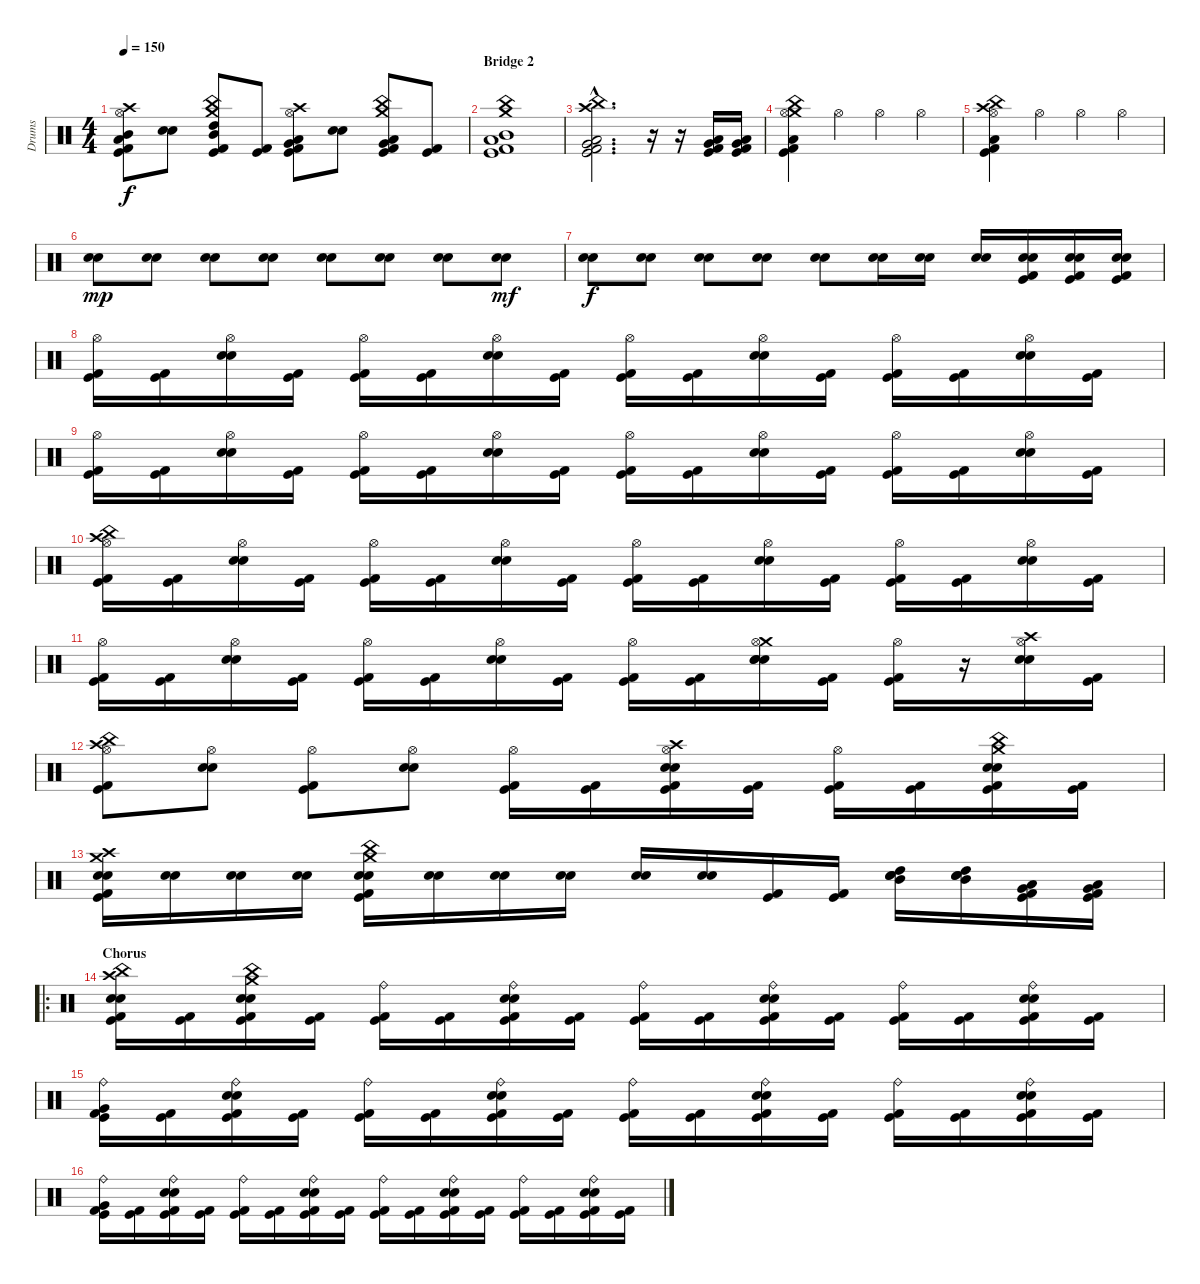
\track ("Drums" "Drums") {instrument percussion}
\staff {score}
\articulation defaults
\ts (4 4)
\tempo 150
\clef neutral
\ks c
("Crash high (hit)" "Hi-Hat (open)" "Mid Tom (hit)" "Low Tom (hit)" "Kick (hit) 2" "Kick (hit)").8{dy f} ("Snare (hit) 2" "Electric Snare (hit)").8 ("Crash medium (hit)" "China (hit)" "High Tom (hit)" "Mid Tom (hit)" "Kick (hit)" "Kick (hit) 2").8 ("Kick (hit) 2" "Kick (hit)").8 ("Crash high (hit)" "Hi-Hat (open)" "Low Tom (hit)" "Very Low Tom (hit)" "Kick (hit) 2" "Kick (hit)").8 ("Electric Snare (hit)" "Snare (hit) 2").8 ("Crash medium (hit)" "China (hit)" "Very Low Tom (hit)" "Low Tom (hit)" "Kick (hit)" "Kick (hit) 2").8 ("Kick (hit) 2" "Kick (hit)").8 |
\section ("" "Bridge 2")
("Crash medium (hit)" "China (hit)" "Low Tom (hit)" "Mid Tom (hit)" "Kick (hit) 2" "Kick (hit)").1 |
("Crash high (hit)"{hac} "China (hit)"{hac} "Low Tom (hit)"{hac} "Kick (hit)"{hac} "Kick (hit) 2"{hac} "Very Low Tom (hit)"{hac}).2{d} r.16 r.16 ("Very Low Tom (hit)" "Low Tom (hit)" "Kick (hit)" "Kick (hit) 2").16 ("Very Low Tom (hit)" "Low Tom (hit)" "Kick (hit)" "Kick (hit) 2").16 |
("Crash medium (hit)" "China (hit)" "Hi-Hat (open)" "Low Tom (hit)" "Kick (hit) 2" "Kick (hit)").4 "Hi-Hat (open)".4 "Hi-Hat (open)".4 "Hi-Hat (open)".4 |
("Crash high (hit)" "China (hit)" "Hi-Hat (open)" "Low Tom (hit)" "Kick (hit) 2" "Kick (hit)").4 "Hi-Hat (open)".4 "Hi-Hat (open)".4 "Hi-Hat (open)".4 |
("Snare (hit) 2" "Electric Snare (hit)").8{dy mp} ("Snare (hit) 2" "Electric Snare (hit)").8 ("Snare (hit) 2" "Electric Snare (hit)").8 ("Snare (hit) 2" "Electric Snare (hit)").8 ("Snare (hit) 2" "Electric Snare (hit)").8 ("Snare (hit) 2" "Electric Snare (hit)").8 ("Snare (hit) 2" "Electric Snare (hit)").8 ("Snare (hit) 2" "Electric Snare (hit)").8{dy mf} |
("Snare (hit) 2" "Electric Snare (hit)").8{dy f} ("Snare (hit) 2" "Electric Snare (hit)").8 ("Snare (hit) 2" "Electric Snare (hit)").8 ("Snare (hit) 2" "Electric Snare (hit)").8 ("Snare (hit) 2" "Electric Snare (hit)").8 ("Snare (hit) 2" "Electric Snare (hit)").16 ("Snare (hit) 2" "Electric Snare (hit)").16 ("Snare (hit) 2" "Electric Snare (hit)").16 ("Snare (hit) 2" "Electric Snare (hit)" "Kick (hit) 2" "Kick (hit)").16 ("Snare (hit) 2" "Electric Snare (hit)" "Kick (hit) 2" "Kick (hit)").16 ("Snare (hit) 2" "Electric Snare (hit)" "Kick (hit) 2" "Kick (hit)").16 |
("Hi-Hat (open)" "Kick (hit) 2" "Kick (hit)").16 ("Kick (hit) 2" "Kick (hit)").16 ("Hi-Hat (open)" "Snare (hit) 2" "Electric Snare (hit)").16 ("Kick (hit) 2" "Kick (hit)").16 ("Hi-Hat (open)" "Kick (hit) 2" "Kick (hit)").16 ("Kick (hit) 2" "Kick (hit)").16 ("Hi-Hat (open)" "Snare (hit) 2" "Electric Snare (hit)").16 ("Kick (hit) 2" "Kick (hit)").16 ("Hi-Hat (open)" "Kick (hit) 2" "Kick (hit)").16 ("Kick (hit) 2" "Kick (hit)").16 ("Hi-Hat (open)" "Snare (hit) 2" "Electric Snare (hit)").16 ("Kick (hit) 2" "Kick (hit)").16 ("Hi-Hat (open)" "Kick (hit) 2" "Kick (hit)").16 ("Kick (hit) 2" "Kick (hit)").16 ("Hi-Hat (open)" "Snare (hit) 2" "Electric Snare (hit)").16 ("Kick (hit) 2" "Kick (hit)").16 |
("Hi-Hat (open)" "Kick (hit) 2" "Kick (hit)").16 ("Kick (hit) 2" "Kick (hit)").16 ("Hi-Hat (open)" "Snare (hit) 2" "Electric Snare (hit)").16 ("Kick (hit) 2" "Kick (hit)").16 ("Hi-Hat (open)" "Kick (hit) 2" "Kick (hit)").16 ("Kick (hit) 2" "Kick (hit)").16 ("Hi-Hat (open)" "Snare (hit) 2" "Electric Snare (hit)").16 ("Kick (hit) 2" "Kick (hit)").16 ("Hi-Hat (open)" "Kick (hit) 2" "Kick (hit)").16 ("Kick (hit) 2" "Kick (hit)").16 ("Hi-Hat (open)" "Snare (hit) 2" "Electric Snare (hit)").16 ("Kick (hit) 2" "Kick (hit)").16 ("Hi-Hat (open)" "Kick (hit) 2" "Kick (hit)").16 ("Kick (hit) 2" "Kick (hit)").16 ("Hi-Hat (open)" "Snare (hit) 2" "Electric Snare (hit)").16 ("Kick (hit) 2" "Kick (hit)").16 |
("Crash high (hit)" "Hi-Hat (open)" "China (hit)" "Kick (hit) 2" "Kick (hit)").16 ("Kick (hit) 2" "Kick (hit)").16 ("Hi-Hat (open)" "Snare (hit) 2" "Electric Snare (hit)").16 ("Kick (hit) 2" "Kick (hit)").16 ("Hi-Hat (open)" "Kick (hit) 2" "Kick (hit)").16 ("Kick (hit) 2" "Kick (hit)").16 ("Hi-Hat (open)" "Snare (hit) 2" "Electric Snare (hit)").16 ("Kick (hit) 2" "Kick (hit)").16 ("Hi-Hat (open)" "Kick (hit) 2" "Kick (hit)").16 ("Kick (hit) 2" "Kick (hit)").16 ("Hi-Hat (open)" "Snare (hit) 2" "Electric Snare (hit)").16 ("Kick (hit) 2" "Kick (hit)").16 ("Hi-Hat (open)" "Kick (hit) 2" "Kick (hit)").16 ("Kick (hit) 2" "Kick (hit)").16 ("Hi-Hat (open)" "Snare (hit) 2" "Electric Snare (hit)").16 ("Kick (hit) 2" "Kick (hit)").16 |
("Hi-Hat (open)" "Kick (hit) 2" "Kick (hit)").16 ("Kick (hit) 2" "Kick (hit)").16 ("Hi-Hat (open)" "Snare (hit) 2" "Electric Snare (hit)").16 ("Kick (hit) 2" "Kick (hit)").16 ("Hi-Hat (open)" "Kick (hit) 2" "Kick (hit)").16 ("Kick (hit) 2" "Kick (hit)").16 ("Hi-Hat (open)" "Snare (hit) 2" "Electric Snare (hit)").16 ("Kick (hit) 2" "Kick (hit)").16 ("Hi-Hat (open)" "Kick (hit) 2" "Kick (hit)").16 ("Kick (hit) 2" "Kick (hit)").16 ("Crash medium (hit)" "Hi-Hat (open)" "Snare (hit) 2" "Electric Snare (hit)" "Snare (hit)").16 ("Kick (hit) 2" "Kick (hit)").16 ("Hi-Hat (open)" "Kick (hit) 2" "Kick (hit)").16 r.16 ("Crash high (hit)" "Hi-Hat (open)" "Snare (hit) 2" "Electric Snare (hit)").16 ("Kick (hit) 2" "Kick (hit)").16 |
("China (hit)" "Hi-Hat (open)" "Crash high (hit)" "Kick (hit) 2" "Kick (hit)").8 ("Hi-Hat (open)" "Electric Snare (hit)" "Snare (hit) 2").8 ("Hi-Hat (open)" "Kick (hit) 2" "Kick (hit)").8 ("Hi-Hat (open)" "Electric Snare (hit)" "Snare (hit) 2").8 ("Hi-Hat (open)" "Kick (hit) 2" "Kick (hit)").16 ("Kick (hit) 2" "Kick (hit)").16 ("Crash high (hit)" "Hi-Hat (open)" "Electric Snare (hit)" "Snare (hit) 2" "Kick (hit) 2" "Kick (hit)").16 ("Kick (hit) 2" "Kick (hit)").16 ("Hi-Hat (open)" "Kick (hit) 2" "Kick (hit)").16 ("Kick (hit) 2" "Kick (hit)").16 ("Crash medium (hit)" "China (hit)" "Electric Snare (hit)" "Snare (hit) 2" "Kick (hit)" "Kick (hit) 2").16 ("Kick (hit) 2" "Kick (hit)").16 |
("Crash high (hit)" "Crash medium (hit)" "Electric Snare (hit)" "Snare (hit) 2" "Kick (hit) 2" "Kick (hit)").16 ("Electric Snare (hit)" "Snare (hit) 2").16 ("Electric Snare (hit)" "Snare (hit) 2").16 ("Electric Snare (hit)" "Snare (hit) 2").16 ("Crash medium (hit)" "China (hit)" "Electric Snare (hit)" "Snare (hit) 2" "Kick (hit) 2" "Kick (hit)").16 ("Electric Snare (hit)" "Snare (hit) 2").16 ("Electric Snare (hit)" "Snare (hit) 2").16 ("Electric Snare (hit)" "Snare (hit) 2").16 ("Electric Snare (hit)" "Snare (hit) 2").16 ("Electric Snare (hit)" "Snare (hit) 2").16 ("Kick (hit) 2" "Kick (hit)").16 ("Kick (hit) 2" "Kick (hit)").16 ("High Tom (hit)" "Mid Tom (hit)" "Electric Snare (hit)" "Snare (hit) 2").16 ("High Tom (hit)" "Mid Tom (hit)" "Electric Snare (hit)" "Snare (hit) 2").16 ("Very Low Tom (hit)" "Low Tom (hit)" "Kick (hit) 2" "Kick (hit)").16 ("Very Low Tom (hit)" "Low Tom (hit)" "Kick (hit) 2" "Kick (hit)").16 |
\ro
\section ("" "Chorus")
("Crash high (hit)" "China (hit)" "Electric Snare (hit)" "Snare (hit) 2" "Kick (hit) 2" "Kick (hit)").16 ("Kick (hit) 2" "Kick (hit)").16 ("Crash medium (hit)" "China (hit)" "Snare (hit) 2" "Electric Snare (hit)" "Kick (hit) 2" "Kick (hit)").16 ("Kick (hit) 2" "Kick (hit)").16 ("Ride (bell)" "Kick (hit) 2" "Kick (hit)").16 ("Kick (hit) 2" "Kick (hit)").16 ("Ride (bell)" "Snare (hit) 2" "Electric Snare (hit)" "Kick (hit)" "Kick (hit) 2").16 ("Kick (hit) 2" "Kick (hit)").16 ("Ride (bell)" "Kick (hit) 2" "Kick (hit)").16 ("Kick (hit) 2" "Kick (hit)").16 ("Ride (bell)" "Snare (hit) 2" "Electric Snare (hit)" "Kick (hit) 2" "Kick (hit)").16 ("Kick (hit) 2" "Kick (hit)").16 ("Ride (bell)" "Kick (hit) 2" "Kick (hit)").16 ("Kick (hit) 2" "Kick (hit)").16 ("Ride (bell)" "Snare (hit) 2" "Electric Snare (hit)" "Kick (hit)" "Kick (hit) 2").16 ("Kick (hit) 2" "Kick (hit)").16 |
("Ride (bell)" "Very Low Tom (hit)" "Kick (hit) 2" "Kick (hit)").16 ("Kick (hit) 2" "Kick (hit)").16 ("Ride (bell)" "Snare (hit) 2" "Electric Snare (hit)" "Kick (hit) 2" "Kick (hit)").16 ("Kick (hit) 2" "Kick (hit)").16 ("Ride (bell)" "Kick (hit) 2" "Kick (hit)").16 ("Kick (hit) 2" "Kick (hit)").16 ("Ride (bell)" "Snare (hit) 2" "Electric Snare (hit)" "Kick (hit)" "Kick (hit) 2").16 ("Kick (hit) 2" "Kick (hit)").16 ("Ride (bell)" "Kick (hit) 2" "Kick (hit)").16 ("Kick (hit) 2" "Kick (hit)").16 ("Ride (bell)" "Snare (hit) 2" "Electric Snare (hit)" "Kick (hit) 2" "Kick (hit)").16 ("Kick (hit) 2" "Kick (hit)").16 ("Ride (bell)" "Kick (hit) 2" "Kick (hit)").16 ("Kick (hit) 2" "Kick (hit)").16 ("Ride (bell)" "Snare (hit) 2" "Electric Snare (hit)" "Kick (hit)" "Kick (hit) 2").16 ("Kick (hit) 2" "Kick (hit)").16 |
("Ride (bell)" "Very Low Tom (hit)" "Kick (hit) 2" "Kick (hit)").16 ("Kick (hit) 2" "Kick (hit)").16 ("Ride (bell)" "Snare (hit) 2" "Electric Snare (hit)" "Kick (hit) 2" "Kick (hit)").16 ("Kick (hit) 2" "Kick (hit)").16 ("Ride (bell)" "Kick (hit) 2" "Kick (hit)").16 ("Kick (hit) 2" "Kick (hit)").16 ("Ride (bell)" "Snare (hit) 2" "Electric Snare (hit)" "Kick (hit)" "Kick (hit) 2").16 ("Kick (hit) 2" "Kick (hit)").16 ("Ride (bell)" "Kick (hit) 2" "Kick (hit)").16 ("Kick (hit) 2" "Kick (hit)").16 ("Ride (bell)" "Snare (hit) 2" "Electric Snare (hit)" "Kick (hit) 2" "Kick (hit)").16 ("Kick (hit) 2" "Kick (hit)").16 ("Ride (bell)" "Kick (hit) 2" "Kick (hit)").16 ("Kick (hit) 2" "Kick (hit)").16 ("Ride (bell)" "Snare (hit) 2" "Electric Snare (hit)" "Kick (hit)" "Kick (hit) 2").16 ("Kick (hit) 2" "Kick (hit)").16
